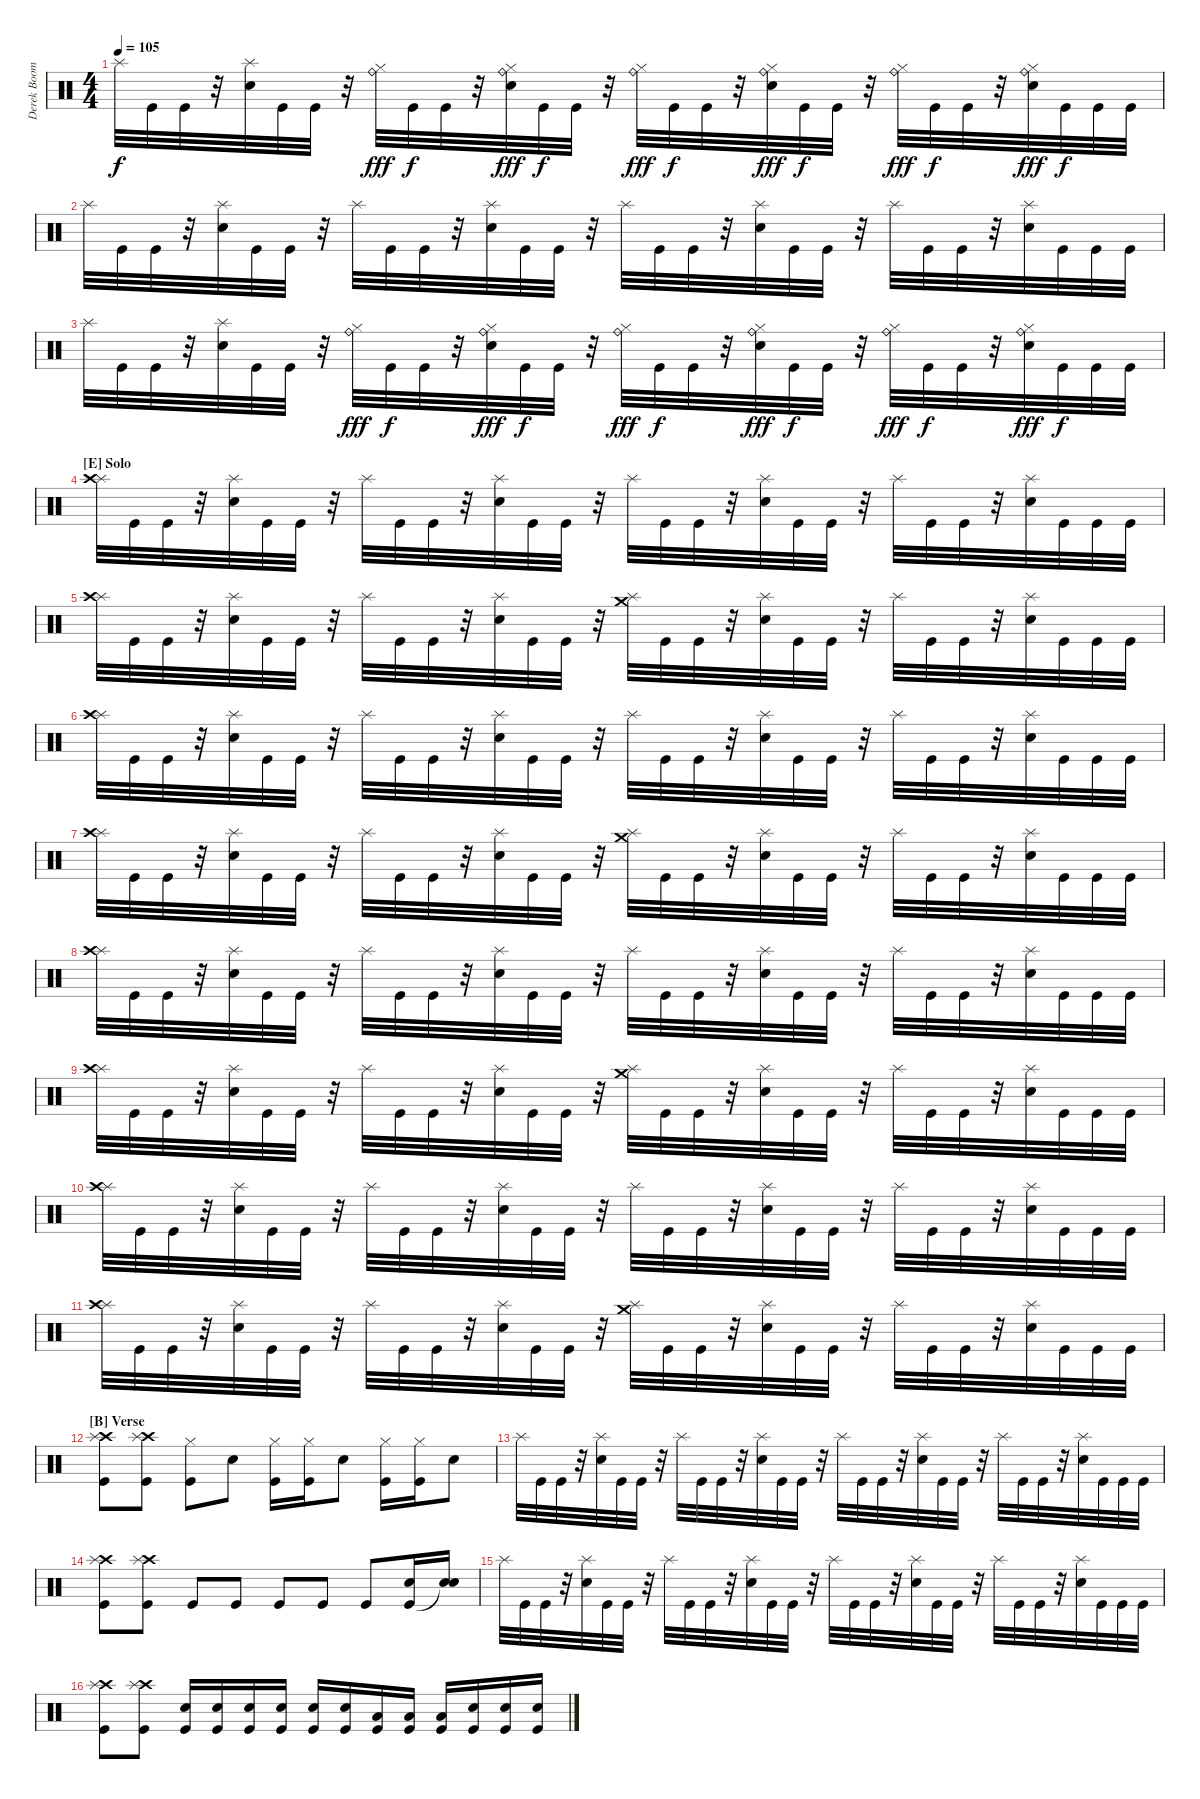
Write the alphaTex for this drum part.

\track ("Derek Boom" "Derek Boom") {instrument percussion}
\staff {score}
\articulation defaults
\ts (4 4)
\tempo 105
\clef neutral
\ks c "Splash (hit)".32{dy f} "Kick (hit)".32 "Kick (hit)".32
r.32 ("Splash (hit)" "Electric Snare (hit)").32 "Kick (hit)".32 "Kick (hit)".32 r.32 ("Ride (bell)" "Hi-Hat (closed)").32{dy fff} "Kick (hit)".32{dy f} "Kick (hit)".32 r.32 ("Ride (bell)" "Electric Snare (hit)" "Hi-Hat (closed)").32{dy fff} "Kick (hit)".32{dy f} "Kick (hit)".32 r.32 ("Ride (bell)" "Hi-Hat (closed)").32{dy fff} "Kick (hit)".32{dy f} "Kick (hit)".32 r.32 ("Ride (bell)" "Electric Snare (hit)" "Hi-Hat (closed)").32{dy fff} "Kick (hit)".32{dy f} "Kick (hit)".32 r.32 ("Ride (bell)" "Hi-Hat (closed)").32{dy fff} "Kick (hit)".32{dy f} "Kick (hit)".32 r.32 ("Ride (bell)" "Electric Snare (hit)" "Hi-Hat (closed)").32{dy fff} "Kick (hit)".32{dy f} "Kick (hit)".32 "Kick (hit)".32 |
"Splash (hit)".32 "Kick (hit)".32 "Kick (hit)".32 r.32 ("Splash (hit)" "Electric Snare (hit)").32 "Kick (hit)".32 "Kick (hit)".32 r.32 "Splash (hit)".32 "Kick (hit)".32 "Kick (hit)".32 r.32 ("Splash (hit)" "Electric Snare (hit)").32 "Kick (hit)".32 "Kick (hit)".32 r.32 "Splash (hit)".32 "Kick (hit)".32 "Kick (hit)".32 r.32 ("Splash (hit)" "Electric Snare (hit)").32 "Kick (hit)".32 "Kick (hit)".32 r.32 "Splash (hit)".32 "Kick (hit)".32 "Kick (hit)".32 r.32 ("Splash (hit)" "Electric Snare (hit)").32 "Kick (hit)".32 "Kick (hit)".32 "Kick (hit)".32 |
"Splash (hit)".32 "Kick (hit)".32 "Kick (hit)".32 r.32 ("Splash (hit)" "Electric Snare (hit)").32 "Kick (hit)".32 "Kick (hit)".32 r.32 ("Ride (bell)" "Hi-Hat (closed)").32{dy fff} "Kick (hit)".32{dy f} "Kick (hit)".32 r.32 ("Ride (bell)" "Electric Snare (hit)" "Hi-Hat (closed)").32{dy fff} "Kick (hit)".32{dy f} "Kick (hit)".32 r.32 ("Ride (bell)" "Hi-Hat (closed)").32{dy fff} "Kick (hit)".32{dy f} "Kick (hit)".32 r.32 ("Ride (bell)" "Electric Snare (hit)" "Hi-Hat (closed)").32{dy fff} "Kick (hit)".32{dy f} "Kick (hit)".32 r.32 ("Ride (bell)" "Hi-Hat (closed)").32{dy fff} "Kick (hit)".32{dy f} "Kick (hit)".32 r.32 ("Ride (bell)" "Electric Snare (hit)" "Hi-Hat (closed)").32{dy fff} "Kick (hit)".32{dy f} "Kick (hit)".32 "Kick (hit)".32 |
\section ("" "[E] Solo")
("Splash (hit)" "Crash high (hit)").32 "Kick (hit)".32 "Kick (hit)".32 r.32 ("Splash (hit)" "Electric Snare (hit)").32 "Kick (hit)".32 "Kick (hit)".32 r.32 "Splash (hit)".32 "Kick (hit)".32 "Kick (hit)".32 r.32 ("Splash (hit)" "Electric Snare (hit)").32 "Kick (hit)".32 "Kick (hit)".32 r.32 "Splash (hit)".32 "Kick (hit)".32 "Kick (hit)".32 r.32 ("Splash (hit)" "Electric Snare (hit)").32 "Kick (hit)".32 "Kick (hit)".32 r.32 "Splash (hit)".32 "Kick (hit)".32 "Kick (hit)".32 r.32 ("Splash (hit)" "Electric Snare (hit)").32 "Kick (hit)".32 "Kick (hit)".32 "Kick (hit)".32 |
("Splash (hit)" "Crash high (hit)").32 "Kick (hit)".32 "Kick (hit)".32 r.32 ("Splash (hit)" "Electric Snare (hit)").32 "Kick (hit)".32 "Kick (hit)".32 r.32 "Splash (hit)".32 "Kick (hit)".32 "Kick (hit)".32 r.32 ("Splash (hit)" "Electric Snare (hit)").32 "Kick (hit)".32 "Kick (hit)".32 r.32 ("Splash (hit)" "Crash medium (hit)").32 "Kick (hit)".32 "Kick (hit)".32 r.32 ("Splash (hit)" "Electric Snare (hit)").32 "Kick (hit)".32 "Kick (hit)".32 r.32 "Splash (hit)".32 "Kick (hit)".32 "Kick (hit)".32 r.32 ("Splash (hit)" "Electric Snare (hit)").32 "Kick (hit)".32 "Kick (hit)".32 "Kick (hit)".32 |
("Splash (hit)" "Crash high (hit)").32 "Kick (hit)".32 "Kick (hit)".32 r.32 ("Splash (hit)" "Electric Snare (hit)").32 "Kick (hit)".32 "Kick (hit)".32 r.32 "Splash (hit)".32 "Kick (hit)".32 "Kick (hit)".32 r.32 ("Splash (hit)" "Electric Snare (hit)").32 "Kick (hit)".32 "Kick (hit)".32 r.32 "Splash (hit)".32 "Kick (hit)".32 "Kick (hit)".32 r.32 ("Splash (hit)" "Electric Snare (hit)").32 "Kick (hit)".32 "Kick (hit)".32 r.32 "Splash (hit)".32 "Kick (hit)".32 "Kick (hit)".32 r.32 ("Splash (hit)" "Electric Snare (hit)").32 "Kick (hit)".32 "Kick (hit)".32 "Kick (hit)".32 |
("Splash (hit)" "Crash high (hit)").32 "Kick (hit)".32 "Kick (hit)".32 r.32 ("Splash (hit)" "Electric Snare (hit)").32 "Kick (hit)".32 "Kick (hit)".32 r.32 "Splash (hit)".32 "Kick (hit)".32 "Kick (hit)".32 r.32 ("Splash (hit)" "Electric Snare (hit)").32 "Kick (hit)".32 "Kick (hit)".32 r.32 ("Splash (hit)" "Crash medium (hit)").32 "Kick (hit)".32 "Kick (hit)".32 r.32 ("Splash (hit)" "Electric Snare (hit)").32 "Kick (hit)".32 "Kick (hit)".32 r.32 "Splash (hit)".32 "Kick (hit)".32 "Kick (hit)".32 r.32 ("Splash (hit)" "Electric Snare (hit)").32 "Kick (hit)".32 "Kick (hit)".32 "Kick (hit)".32 |
("Splash (hit)" "Crash high (hit)").32 "Kick (hit)".32 "Kick (hit)".32 r.32 ("Splash (hit)" "Electric Snare (hit)").32 "Kick (hit)".32 "Kick (hit)".32 r.32 "Splash (hit)".32 "Kick (hit)".32 "Kick (hit)".32 r.32 ("Splash (hit)" "Electric Snare (hit)").32 "Kick (hit)".32 "Kick (hit)".32 r.32 "Splash (hit)".32 "Kick (hit)".32 "Kick (hit)".32 r.32 ("Splash (hit)" "Electric Snare (hit)").32 "Kick (hit)".32 "Kick (hit)".32 r.32 "Splash (hit)".32 "Kick (hit)".32 "Kick (hit)".32 r.32 ("Splash (hit)" "Electric Snare (hit)").32 "Kick (hit)".32 "Kick (hit)".32 "Kick (hit)".32 |
("Splash (hit)" "Crash high (hit)").32 "Kick (hit)".32 "Kick (hit)".32 r.32 ("Splash (hit)" "Electric Snare (hit)").32 "Kick (hit)".32 "Kick (hit)".32 r.32 "Splash (hit)".32 "Kick (hit)".32 "Kick (hit)".32 r.32 ("Splash (hit)" "Electric Snare (hit)").32 "Kick (hit)".32 "Kick (hit)".32 r.32 ("Splash (hit)" "Crash medium (hit)").32 "Kick (hit)".32 "Kick (hit)".32 r.32 ("Splash (hit)" "Electric Snare (hit)").32 "Kick (hit)".32 "Kick (hit)".32 r.32 "Splash (hit)".32 "Kick (hit)".32 "Kick (hit)".32 r.32 ("Splash (hit)" "Electric Snare (hit)").32 "Kick (hit)".32 "Kick (hit)".32 "Kick (hit)".32 |
("Splash (hit)" "Crash high (hit)").32 "Kick (hit)".32 "Kick (hit)".32 r.32 ("Splash (hit)" "Electric Snare (hit)").32 "Kick (hit)".32 "Kick (hit)".32 r.32 "Splash (hit)".32 "Kick (hit)".32 "Kick (hit)".32 r.32 ("Splash (hit)" "Electric Snare (hit)").32 "Kick (hit)".32 "Kick (hit)".32 r.32 "Splash (hit)".32 "Kick (hit)".32 "Kick (hit)".32 r.32 ("Splash (hit)" "Electric Snare (hit)").32 "Kick (hit)".32 "Kick (hit)".32 r.32 "Splash (hit)".32 "Kick (hit)".32 "Kick (hit)".32 r.32 ("Splash (hit)" "Electric Snare (hit)").32 "Kick (hit)".32 "Kick (hit)".32 "Kick (hit)".32 |
("Splash (hit)" "Crash high (hit)").32 "Kick (hit)".32 "Kick (hit)".32 r.32 ("Splash (hit)" "Electric Snare (hit)").32 "Kick (hit)".32 "Kick (hit)".32 r.32 "Splash (hit)".32 "Kick (hit)".32 "Kick (hit)".32 r.32 ("Splash (hit)" "Electric Snare (hit)").32 "Kick (hit)".32 "Kick (hit)".32 r.32 ("Splash (hit)" "Crash medium (hit)").32 "Kick (hit)".32 "Kick (hit)".32 r.32 ("Splash (hit)" "Electric Snare (hit)").32 "Kick (hit)".32 "Kick (hit)".32 r.32 "Splash (hit)".32 "Kick (hit)".32 "Kick (hit)".32 r.32 ("Splash (hit)" "Electric Snare (hit)").32 "Kick (hit)".32 "Kick (hit)".32 "Kick (hit)".32 |
\section ("" "[B] Verse")
("Crash high (hit)" "Splash (hit)" "Kick (hit)").8 ("Crash high (hit)" "Splash (hit)" "Kick (hit)").8 ("Hi-Hat (closed)" "Kick (hit)").8 "Electric Snare (hit)".8 ("Hi-Hat (closed)" "Kick (hit)").16 ("Hi-Hat (closed)" "Kick (hit)").16 "Electric Snare (hit)".8 ("Hi-Hat (closed)" "Kick (hit)").16 ("Hi-Hat (closed)" "Kick (hit)").16 "Electric Snare (hit)".8 |
"Splash (hit)".32 "Kick (hit)".32 "Kick (hit)".32 r.32 ("Splash (hit)" "Electric Snare (hit)").32 "Kick (hit)".32 "Kick (hit)".32 r.32 "Splash (hit)".32 "Kick (hit)".32 "Kick (hit)".32 r.32 ("Splash (hit)" "Electric Snare (hit)").32 "Kick (hit)".32 "Kick (hit)".32 r.32 "Splash (hit)".32 "Kick (hit)".32 "Kick (hit)".32 r.32 ("Splash (hit)" "Electric Snare (hit)").32 "Kick (hit)".32 "Kick (hit)".32 r.32 "Splash (hit)".32 "Kick (hit)".32 "Kick (hit)".32 r.32 ("Splash (hit)" "Electric Snare (hit)").32 "Kick (hit)".32 "Kick (hit)".32 "Kick (hit)".32 |
("Crash high (hit)" "Splash (hit)" "Kick (hit)").8 ("Crash high (hit)" "Splash (hit)" "Kick (hit)").8 "Kick (hit)".8 "Kick (hit)".8 "Kick (hit)".8 "Kick (hit)".8 "Kick (hit)".8 ("Electric Snare (hit)" "Kick (hit)").16 ("Electric Snare (hit)" "Snare (hit)"{t}).16 |
"Splash (hit)".32 "Kick (hit)".32 "Kick (hit)".32 r.32 ("Splash (hit)" "Electric Snare (hit)").32 "Kick (hit)".32 "Kick (hit)".32 r.32 "Splash (hit)".32 "Kick (hit)".32 "Kick (hit)".32 r.32 ("Splash (hit)" "Electric Snare (hit)").32 "Kick (hit)".32 "Kick (hit)".32 r.32 "Splash (hit)".32 "Kick (hit)".32 "Kick (hit)".32 r.32 ("Splash (hit)" "Electric Snare (hit)").32 "Kick (hit)".32 "Kick (hit)".32 r.32 "Splash (hit)".32 "Kick (hit)".32 "Kick (hit)".32 r.32 ("Splash (hit)" "Electric Snare (hit)").32 "Kick (hit)".32 "Kick (hit)".32 "Kick (hit)".32 |
("Crash high (hit)" "Splash (hit)" "Kick (hit)").8 ("Crash high (hit)" "Splash (hit)" "Kick (hit)").8 ("Electric Snare (hit)" "Kick (hit)").16 ("Electric Snare (hit)" "Kick (hit)").16 ("Electric Snare (hit)" "Kick (hit)").16 ("Electric Snare (hit)" "Kick (hit)").16 ("Electric Snare (hit)" "Kick (hit)").16 ("Electric Snare (hit)" "Kick (hit)").16 ("Low Tom (hit)" "Kick (hit)").16 ("Low Tom (hit)" "Kick (hit)").16 ("Low Tom (hit)" "Kick (hit)").16 ("Electric Snare (hit)" "Kick (hit)").16 ("Electric Snare (hit)" "Kick (hit)").16 ("Electric Snare (hit)" "Kick (hit)").16
